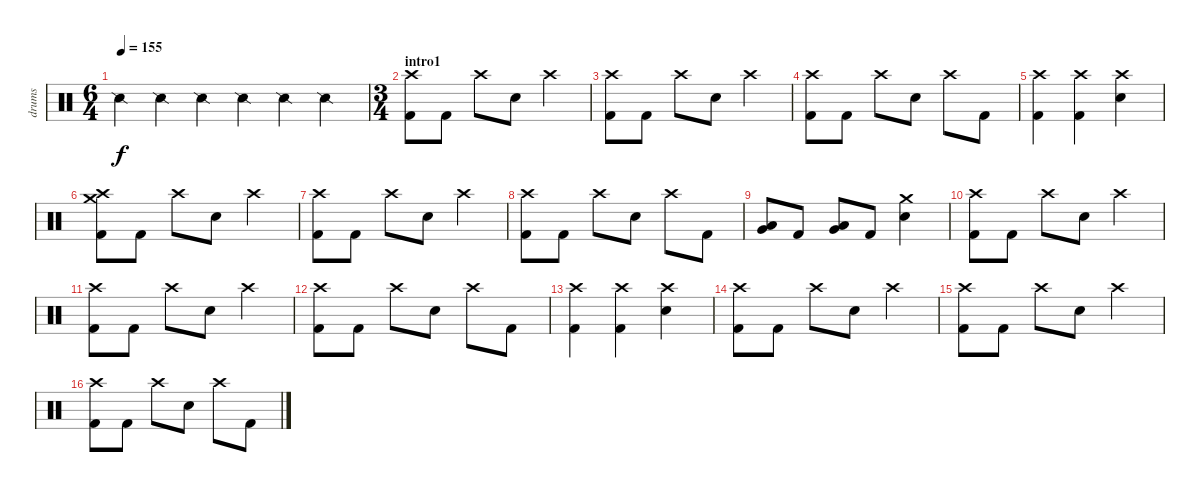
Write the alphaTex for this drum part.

\track ("drums" "drums") {instrument percussion}
\staff {score}
\articulation defaults
\ts (6 4)
\tempo 155
\clef neutral
\ks c "Snare (side stick) 2".4{dy f} "Snare (side stick) 2".4 "Snare (side stick) 2".4 "Snare (side stick) 2".4 "Snare (side stick) 2".4 "Snare (side stick) 2".4
|
\ts (3 4)
\section ("" "intro1")
("Crash high (hit)" "Kick (hit) 2").8 "Kick (hit) 2".8 "Crash high (hit)".8 "Electric Snare (hit)".8 "Crash high (hit)".4 |
("Crash high (hit)" "Kick (hit) 2").8 "Kick (hit) 2".8 "Crash high (hit)".8 "Electric Snare (hit)".8 "Crash high (hit)".4 |
("Crash high (hit)" "Kick (hit) 2").8 "Kick (hit) 2".8 "Crash high (hit)".8 "Electric Snare (hit)".8 "Crash high (hit)".8 "Kick (hit) 2".8 |
("Crash high (hit)" "Kick (hit) 2").4 ("Crash high (hit)" "Kick (hit) 2").4 ("Crash high (hit)" "Electric Snare (hit)").4 |
("Crash high (hit)" "Crash medium (hit)" "Kick (hit) 2").8 "Kick (hit) 2".8 "Crash high (hit)".8 "Electric Snare (hit)".8 "Crash high (hit)".4 |
("Crash high (hit)" "Kick (hit) 2").8 "Kick (hit) 2".8 "Crash high (hit)".8 "Electric Snare (hit)".8 "Crash high (hit)".4 |
("Crash high (hit)" "Kick (hit) 2").8 "Kick (hit) 2".8 "Crash high (hit)".8 "Electric Snare (hit)".8 "Crash high (hit)".8 "Kick (hit) 2".8 |
("Low Tom (hit)" "Very Low Tom (hit)").8 "Kick (hit) 2".8 ("Very Low Tom (hit)" "Low Floor Tom (hit)").8 "Kick (hit) 2".8 ("Crash medium (hit)" "Electric Snare (hit)").4 |
("Crash high (hit)" "Kick (hit) 2").8 "Kick (hit) 2".8 "Crash high (hit)".8 "Electric Snare (hit)".8 "Crash high (hit)".4 |
("Crash high (hit)" "Kick (hit) 2").8 "Kick (hit) 2".8 "Crash high (hit)".8 "Electric Snare (hit)".8 "Crash high (hit)".4 |
("Crash high (hit)" "Kick (hit) 2").8 "Kick (hit) 2".8 "Crash high (hit)".8 "Electric Snare (hit)".8 "Crash high (hit)".8 "Kick (hit) 2".8 |
("Crash high (hit)" "Kick (hit) 2").4 ("Crash high (hit)" "Kick (hit) 2").4 ("Crash high (hit)" "Electric Snare (hit)").4 |
("Crash high (hit)" "Kick (hit) 2").8 "Kick (hit) 2".8 "Crash high (hit)".8 "Electric Snare (hit)".8 "Crash high (hit)".4 |
("Crash high (hit)" "Kick (hit) 2").8 "Kick (hit) 2".8 "Crash high (hit)".8 "Electric Snare (hit)".8 "Crash high (hit)".4 |
("Crash high (hit)" "Kick (hit) 2").8 "Kick (hit) 2".8 "Crash high (hit)".8 "Electric Snare (hit)".8 "Crash high (hit)".8 "Kick (hit) 2".8
